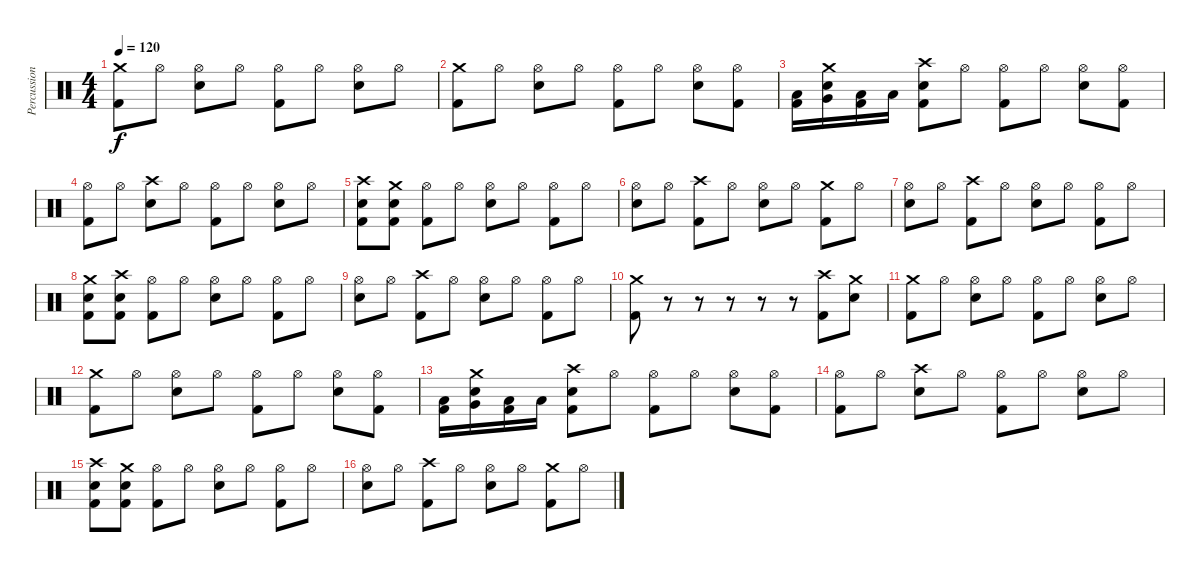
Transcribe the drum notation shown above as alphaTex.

\track ("Percussion" "Percussion") {instrument percussion}
\staff {score}
\articulation defaults
\ts (4 4)
\tempo 120
\clef neutral
\ks c
("Crash medium (hit)" "Kick (hit) 2").8{dy f} "Hi-Hat (open)".8 ("Hi-Hat (open)" "Snare (hit) 2").8 "Hi-Hat (open)".8 ("Hi-Hat (open)" "Kick (hit) 2").8 "Hi-Hat (open)".8 ("Hi-Hat (open)" "Snare (hit) 2").8 "Hi-Hat (open)".8 |
("Crash medium (hit)" "Kick (hit) 2").8 "Hi-Hat (open)".8 ("Hi-Hat (open)" "Snare (hit) 2").8 "Hi-Hat (open)".8 ("Hi-Hat (open)" "Kick (hit) 2").8 "Hi-Hat (open)".8 ("Hi-Hat (open)" "Snare (hit) 2").8 ("Hi-Hat (open)" "Kick (hit) 2").8 |
("Low Tom (hit)" "Kick (hit) 2").16 ("Very Low Tom (hit)" "Snare (hit) 2" "Crash medium (hit)").16 ("Low Floor Tom (hit)" "Kick (hit) 2").16 "Low Floor Tom (hit)".16 ("Crash high (hit)" "Snare (hit) 2" "Kick (hit) 2").8 "Hi-Hat (open)".8 ("Hi-Hat (open)" "Kick (hit) 2").8 "Hi-Hat (open)".8 ("Hi-Hat (open)" "Snare (hit) 2").8 ("Hi-Hat (open)" "Kick (hit) 2").8 |
("Hi-Hat (open)" "Kick (hit) 2").8 "Hi-Hat (open)".8 ("Crash high (hit)" "Snare (hit) 2").8 "Hi-Hat (open)".8 ("Hi-Hat (open)" "Kick (hit) 2").8 "Hi-Hat (open)".8 ("Hi-Hat (open)" "Snare (hit) 2").8 "Hi-Hat (open)".8 |
("Crash high (hit)" "Snare (hit) 2" "Kick (hit) 2").8 ("Crash medium (hit)" "Snare (hit) 2" "Kick (hit) 2").8 ("Hi-Hat (open)" "Kick (hit) 2").8 "Hi-Hat (open)".8 ("Hi-Hat (open)" "Snare (hit) 2").8 "Hi-Hat (open)".8 ("Hi-Hat (open)" "Kick (hit) 2").8 "Hi-Hat (open)".8 |
("Hi-Hat (open)" "Snare (hit) 2").8 "Hi-Hat (open)".8 ("Crash high (hit)" "Kick (hit) 2").8 "Hi-Hat (open)".8 ("Hi-Hat (open)" "Snare (hit) 2").8 "Hi-Hat (open)".8 ("Crash medium (hit)" "Kick (hit) 2").8 "Hi-Hat (open)".8 |
("Hi-Hat (open)" "Snare (hit) 2").8 "Hi-Hat (open)".8 ("Crash high (hit)" "Kick (hit) 2").8 "Hi-Hat (open)".8 ("Hi-Hat (open)" "Snare (hit) 2").8 "Hi-Hat (open)".8 ("Hi-Hat (open)" "Kick (hit) 2").8 "Hi-Hat (open)".8 |
("Crash medium (hit)" "Snare (hit) 2" "Kick (hit) 2").8 ("Crash high (hit)" "Snare (hit) 2" "Kick (hit) 2").8 ("Hi-Hat (open)" "Kick (hit) 2").8 "Hi-Hat (open)".8 ("Hi-Hat (open)" "Snare (hit) 2").8 "Hi-Hat (open)".8 ("Hi-Hat (open)" "Kick (hit) 2").8 "Hi-Hat (open)".8 |
("Hi-Hat (open)" "Snare (hit) 2").8 "Hi-Hat (open)".8 ("Crash high (hit)" "Kick (hit) 2").8 "Hi-Hat (open)".8 ("Hi-Hat (open)" "Snare (hit) 2").8 "Hi-Hat (open)".8 ("Hi-Hat (open)" "Kick (hit) 2").8 "Hi-Hat (open)".8 |
("Crash medium (hit)" "Kick (hit) 2").8 r.8 r.8 r.8 r.8 r.8 ("Crash high (hit)" "Kick (hit) 2").8 ("Crash medium (hit)" "Snare (hit) 2").8 |
("Crash medium (hit)" "Kick (hit) 2").8 "Hi-Hat (open)".8 ("Hi-Hat (open)" "Snare (hit) 2").8 "Hi-Hat (open)".8 ("Hi-Hat (open)" "Kick (hit) 2").8 "Hi-Hat (open)".8 ("Hi-Hat (open)" "Snare (hit) 2").8 "Hi-Hat (open)".8 |
("Crash medium (hit)" "Kick (hit) 2").8 "Hi-Hat (open)".8 ("Hi-Hat (open)" "Snare (hit) 2").8 "Hi-Hat (open)".8 ("Hi-Hat (open)" "Kick (hit) 2").8 "Hi-Hat (open)".8 ("Hi-Hat (open)" "Snare (hit) 2").8 ("Hi-Hat (open)" "Kick (hit) 2").8 |
("Low Tom (hit)" "Kick (hit) 2").16 ("Very Low Tom (hit)" "Snare (hit) 2" "Crash medium (hit)").16 ("Low Floor Tom (hit)" "Kick (hit) 2").16 "Low Floor Tom (hit)".16 ("Crash high (hit)" "Snare (hit) 2" "Kick (hit) 2").8 "Hi-Hat (open)".8 ("Hi-Hat (open)" "Kick (hit) 2").8 "Hi-Hat (open)".8 ("Hi-Hat (open)" "Snare (hit) 2").8 ("Hi-Hat (open)" "Kick (hit) 2").8 |
("Hi-Hat (open)" "Kick (hit) 2").8 "Hi-Hat (open)".8 ("Crash high (hit)" "Snare (hit) 2").8 "Hi-Hat (open)".8 ("Hi-Hat (open)" "Kick (hit) 2").8 "Hi-Hat (open)".8 ("Hi-Hat (open)" "Snare (hit) 2").8 "Hi-Hat (open)".8 |
("Crash high (hit)" "Snare (hit) 2" "Kick (hit) 2").8 ("Crash medium (hit)" "Snare (hit) 2" "Kick (hit) 2").8 ("Hi-Hat (open)" "Kick (hit) 2").8 "Hi-Hat (open)".8 ("Hi-Hat (open)" "Snare (hit) 2").8 "Hi-Hat (open)".8 ("Hi-Hat (open)" "Kick (hit) 2").8 "Hi-Hat (open)".8 |
("Hi-Hat (open)" "Snare (hit) 2").8 "Hi-Hat (open)".8 ("Crash high (hit)" "Kick (hit) 2").8 "Hi-Hat (open)".8 ("Hi-Hat (open)" "Snare (hit) 2").8 "Hi-Hat (open)".8 ("Crash medium (hit)" "Kick (hit) 2").8 "Hi-Hat (open)".8
